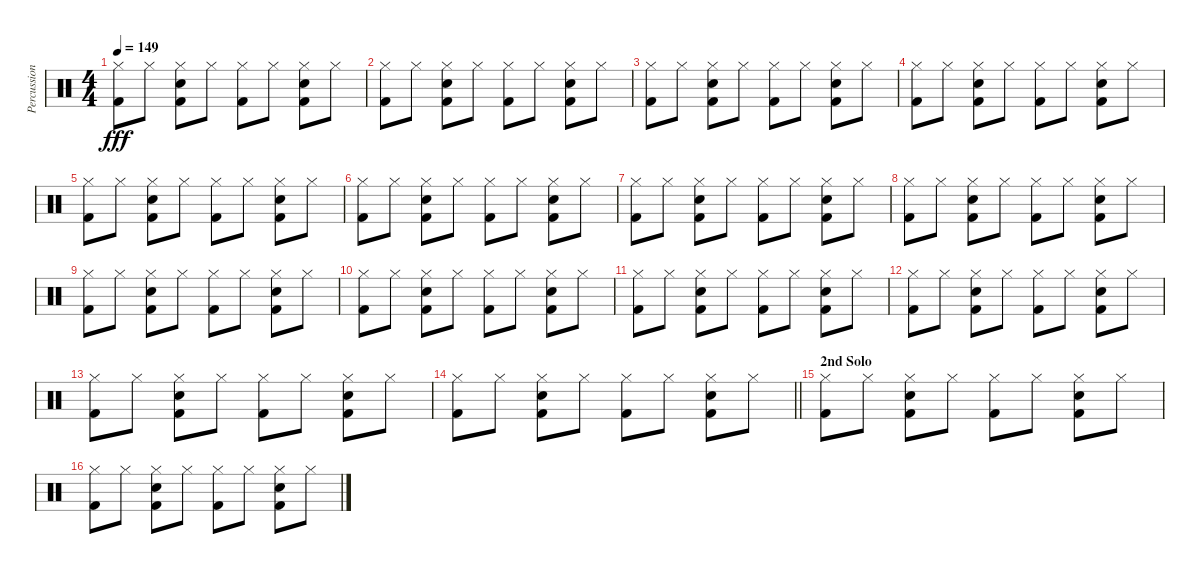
\track ("Percussion" "Percussion") {instrument percussion}
\staff {score}
\articulation defaults
\ts (4 4)
\tempo 149
\clef neutral
\ks c
("Hi-Hat (closed)" "Kick (hit) 2").8{dy fff} "Hi-Hat (closed)".8 ("Hi-Hat (closed)" "Snare (hit) 2" "Kick (hit) 2").8 "Hi-Hat (closed)".8 ("Hi-Hat (closed)" "Kick (hit) 2").8 "Hi-Hat (closed)".8 ("Hi-Hat (closed)" "Snare (hit) 2" "Kick (hit) 2").8 "Hi-Hat (closed)".8 |
("Hi-Hat (closed)" "Kick (hit) 2").8 "Hi-Hat (closed)".8 ("Hi-Hat (closed)" "Snare (hit) 2" "Kick (hit) 2").8 "Hi-Hat (closed)".8 ("Hi-Hat (closed)" "Kick (hit) 2").8 "Hi-Hat (closed)".8 ("Hi-Hat (closed)" "Snare (hit) 2" "Kick (hit) 2").8 "Hi-Hat (closed)".8 |
("Hi-Hat (closed)" "Kick (hit) 2").8 "Hi-Hat (closed)".8 ("Hi-Hat (closed)" "Snare (hit) 2" "Kick (hit) 2").8 "Hi-Hat (closed)".8 ("Hi-Hat (closed)" "Kick (hit) 2").8 "Hi-Hat (closed)".8 ("Hi-Hat (closed)" "Snare (hit) 2" "Kick (hit) 2").8 "Hi-Hat (closed)".8 |
("Hi-Hat (closed)" "Kick (hit) 2").8 "Hi-Hat (closed)".8 ("Hi-Hat (closed)" "Snare (hit) 2" "Kick (hit) 2").8 "Hi-Hat (closed)".8 ("Hi-Hat (closed)" "Kick (hit) 2").8 "Hi-Hat (closed)".8 ("Hi-Hat (closed)" "Snare (hit) 2" "Kick (hit) 2").8 "Hi-Hat (closed)".8 |
("Hi-Hat (closed)" "Kick (hit) 2").8 "Hi-Hat (closed)".8 ("Hi-Hat (closed)" "Snare (hit) 2" "Kick (hit) 2").8 "Hi-Hat (closed)".8 ("Hi-Hat (closed)" "Kick (hit) 2").8 "Hi-Hat (closed)".8 ("Hi-Hat (closed)" "Snare (hit) 2" "Kick (hit) 2").8 "Hi-Hat (closed)".8 |
("Hi-Hat (closed)" "Kick (hit) 2").8 "Hi-Hat (closed)".8 ("Hi-Hat (closed)" "Snare (hit) 2" "Kick (hit) 2").8 "Hi-Hat (closed)".8 ("Hi-Hat (closed)" "Kick (hit) 2").8 "Hi-Hat (closed)".8 ("Hi-Hat (closed)" "Snare (hit) 2" "Kick (hit) 2").8 "Hi-Hat (closed)".8 |
("Hi-Hat (closed)" "Kick (hit) 2").8 "Hi-Hat (closed)".8 ("Hi-Hat (closed)" "Snare (hit) 2" "Kick (hit) 2").8 "Hi-Hat (closed)".8 ("Hi-Hat (closed)" "Kick (hit) 2").8 "Hi-Hat (closed)".8 ("Hi-Hat (closed)" "Snare (hit) 2" "Kick (hit) 2").8 "Hi-Hat (closed)".8 |
("Hi-Hat (closed)" "Kick (hit) 2").8 "Hi-Hat (closed)".8 ("Hi-Hat (closed)" "Snare (hit) 2" "Kick (hit) 2").8 "Hi-Hat (closed)".8 ("Hi-Hat (closed)" "Kick (hit) 2").8 "Hi-Hat (closed)".8 ("Hi-Hat (closed)" "Snare (hit) 2" "Kick (hit) 2").8 "Hi-Hat (closed)".8 |
("Hi-Hat (closed)" "Kick (hit) 2").8 "Hi-Hat (closed)".8 ("Hi-Hat (closed)" "Snare (hit) 2" "Kick (hit) 2").8 "Hi-Hat (closed)".8 ("Hi-Hat (closed)" "Kick (hit) 2").8 "Hi-Hat (closed)".8 ("Hi-Hat (closed)" "Snare (hit) 2" "Kick (hit) 2").8 "Hi-Hat (closed)".8 |
("Hi-Hat (closed)" "Kick (hit) 2").8 "Hi-Hat (closed)".8 ("Hi-Hat (closed)" "Snare (hit) 2" "Kick (hit) 2").8 "Hi-Hat (closed)".8 ("Hi-Hat (closed)" "Kick (hit) 2").8 "Hi-Hat (closed)".8 ("Hi-Hat (closed)" "Snare (hit) 2" "Kick (hit) 2").8 "Hi-Hat (closed)".8 |
("Hi-Hat (closed)" "Kick (hit) 2").8 "Hi-Hat (closed)".8 ("Hi-Hat (closed)" "Snare (hit) 2" "Kick (hit) 2").8 "Hi-Hat (closed)".8 ("Hi-Hat (closed)" "Kick (hit) 2").8 "Hi-Hat (closed)".8 ("Hi-Hat (closed)" "Snare (hit) 2" "Kick (hit) 2").8 "Hi-Hat (closed)".8 |
("Hi-Hat (closed)" "Kick (hit) 2").8 "Hi-Hat (closed)".8 ("Hi-Hat (closed)" "Snare (hit) 2" "Kick (hit) 2").8 "Hi-Hat (closed)".8 ("Hi-Hat (closed)" "Kick (hit) 2").8 "Hi-Hat (closed)".8 ("Hi-Hat (closed)" "Snare (hit) 2" "Kick (hit) 2").8 "Hi-Hat (closed)".8 |
("Hi-Hat (closed)" "Kick (hit) 2").8 "Hi-Hat (closed)".8 ("Hi-Hat (closed)" "Snare (hit) 2" "Kick (hit) 2").8 "Hi-Hat (closed)".8 ("Hi-Hat (closed)" "Kick (hit) 2").8 "Hi-Hat (closed)".8 ("Hi-Hat (closed)" "Snare (hit) 2" "Kick (hit) 2").8 "Hi-Hat (closed)".8 |
\barLineRight lightlight
("Hi-Hat (closed)" "Kick (hit) 2").8 "Hi-Hat (closed)".8 ("Hi-Hat (closed)" "Snare (hit) 2" "Kick (hit) 2").8 "Hi-Hat (closed)".8 ("Hi-Hat (closed)" "Kick (hit) 2").8 "Hi-Hat (closed)".8 ("Hi-Hat (closed)" "Snare (hit) 2" "Kick (hit) 2").8 "Hi-Hat (closed)".8 |
\section ("" "2nd Solo")
("Hi-Hat (closed)" "Kick (hit) 2").8 "Hi-Hat (closed)".8 ("Hi-Hat (closed)" "Snare (hit) 2" "Kick (hit) 2").8 "Hi-Hat (closed)".8 ("Hi-Hat (closed)" "Kick (hit) 2").8 "Hi-Hat (closed)".8 ("Hi-Hat (closed)" "Snare (hit) 2" "Kick (hit) 2").8 "Hi-Hat (closed)".8 |
("Hi-Hat (closed)" "Kick (hit) 2").8 "Hi-Hat (closed)".8 ("Hi-Hat (closed)" "Snare (hit) 2" "Kick (hit) 2").8 "Hi-Hat (closed)".8 ("Hi-Hat (closed)" "Kick (hit) 2").8 "Hi-Hat (closed)".8 ("Hi-Hat (closed)" "Snare (hit) 2" "Kick (hit) 2").8 "Hi-Hat (closed)".8
